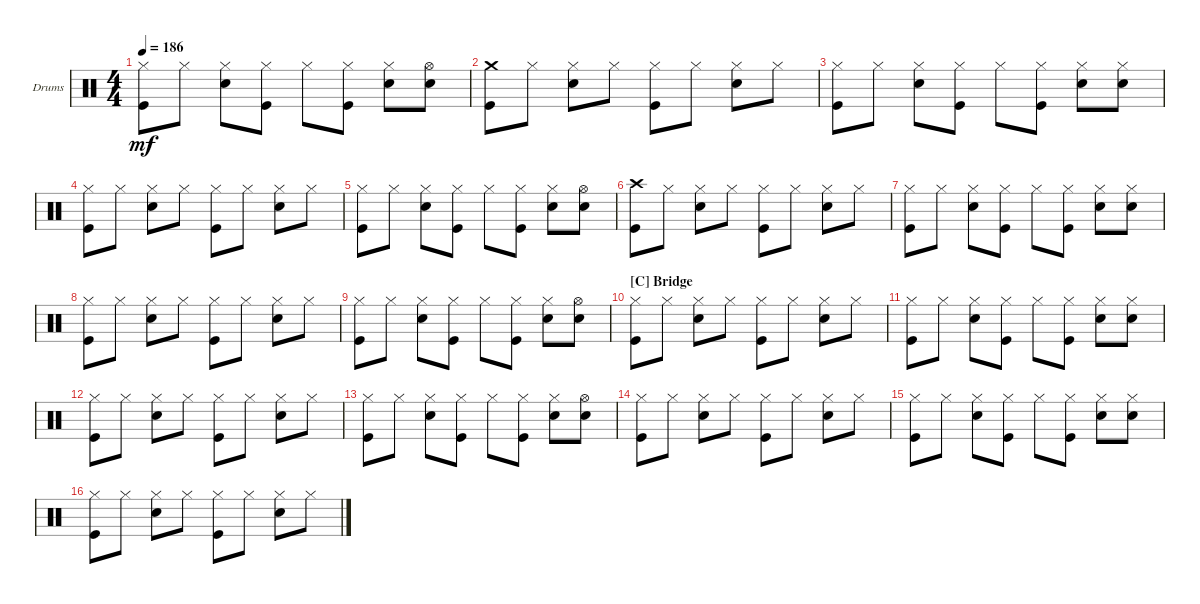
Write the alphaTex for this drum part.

\bracketExtendMode groupsimilarinstruments
\firstSystemTrackNameOrientation horizontal
\otherSystemsTrackNameOrientation horizontal
\track ("Drumkit" "Drums") {instrument percussion}
\staff {score}
\articulation defaults
\ts (4 4)
\tempo 186
\clef neutral
\ks c
("Hi-Hat (closed)" "Kick (hit)").8{dy mf} "Hi-Hat (closed)".8 ("Hi-Hat (closed)" "Snare (hit) 2").8 ("Hi-Hat (closed)" "Kick (hit)").8 "Hi-Hat (closed)".8 ("Hi-Hat (closed)" "Kick (hit)").8 ("Hi-Hat (closed)" "Snare (hit) 2").8 ("Hi-Hat (open)" "Snare (hit) 2").8 |
("Crash medium (hit)" "Kick (hit)").8 "Hi-Hat (closed)".8 ("Hi-Hat (closed)" "Snare (hit) 2").8 "Hi-Hat (closed)".8 ("Hi-Hat (closed)" "Kick (hit)").8 "Hi-Hat (closed)".8 ("Hi-Hat (closed)" "Snare (hit) 2").8 "Hi-Hat (closed)".8 |
("Hi-Hat (closed)" "Kick (hit)").8 "Hi-Hat (closed)".8 ("Hi-Hat (closed)" "Snare (hit) 2").8 ("Hi-Hat (closed)" "Kick (hit)").8 "Hi-Hat (closed)".8 ("Hi-Hat (closed)" "Kick (hit)").8 ("Hi-Hat (closed)" "Snare (hit) 2").8 ("Hi-Hat (closed)" "Snare (hit) 2").8 |
("Hi-Hat (closed)" "Kick (hit)").8 "Hi-Hat (closed)".8 ("Hi-Hat (closed)" "Snare (hit) 2").8 "Hi-Hat (closed)".8 ("Hi-Hat (closed)" "Kick (hit)").8 "Hi-Hat (closed)".8 ("Hi-Hat (closed)" "Snare (hit) 2").8 "Hi-Hat (closed)".8 |
("Hi-Hat (closed)" "Kick (hit)").8 "Hi-Hat (closed)".8 ("Hi-Hat (closed)" "Snare (hit) 2").8 ("Hi-Hat (closed)" "Kick (hit)").8 "Hi-Hat (closed)".8 ("Hi-Hat (closed)" "Kick (hit)").8 ("Hi-Hat (closed)" "Snare (hit) 2").8 ("Hi-Hat (open)" "Snare (hit) 2").8 |
("Crash high (hit)" "Kick (hit)").8 "Hi-Hat (closed)".8 ("Hi-Hat (closed)" "Snare (hit) 2").8 "Hi-Hat (closed)".8 ("Hi-Hat (closed)" "Kick (hit)").8 "Hi-Hat (closed)".8 ("Hi-Hat (closed)" "Snare (hit) 2").8 "Hi-Hat (closed)".8 |
("Hi-Hat (closed)" "Kick (hit)").8 "Hi-Hat (closed)".8 ("Hi-Hat (closed)" "Snare (hit) 2").8 ("Hi-Hat (closed)" "Kick (hit)").8 "Hi-Hat (closed)".8 ("Hi-Hat (closed)" "Kick (hit)").8 ("Hi-Hat (closed)" "Snare (hit) 2").8 ("Hi-Hat (closed)" "Snare (hit) 2").8 |
("Hi-Hat (closed)" "Kick (hit)").8 "Hi-Hat (closed)".8 ("Hi-Hat (closed)" "Snare (hit) 2").8 "Hi-Hat (closed)".8 ("Hi-Hat (closed)" "Kick (hit)").8 "Hi-Hat (closed)".8 ("Hi-Hat (closed)" "Snare (hit) 2").8 "Hi-Hat (closed)".8 |
("Hi-Hat (closed)" "Kick (hit)").8 "Hi-Hat (closed)".8 ("Hi-Hat (closed)" "Snare (hit) 2").8 ("Hi-Hat (closed)" "Kick (hit)").8 "Hi-Hat (closed)".8 ("Hi-Hat (closed)" "Kick (hit)").8 ("Hi-Hat (closed)" "Snare (hit) 2").8 ("Hi-Hat (open)" "Snare (hit) 2").8 |
\section ("C" "Bridge")
("Hi-Hat (closed)" "Kick (hit)").8 "Hi-Hat (closed)".8 ("Hi-Hat (closed)" "Snare (hit) 2").8 "Hi-Hat (closed)".8 ("Hi-Hat (closed)" "Kick (hit)").8 "Hi-Hat (closed)".8 ("Hi-Hat (closed)" "Snare (hit) 2").8 "Hi-Hat (closed)".8 |
("Hi-Hat (closed)" "Kick (hit)").8 "Hi-Hat (closed)".8 ("Hi-Hat (closed)" "Snare (hit) 2").8 ("Hi-Hat (closed)" "Kick (hit)").8 "Hi-Hat (closed)".8 ("Hi-Hat (closed)" "Kick (hit)").8 ("Hi-Hat (closed)" "Snare (hit) 2").8 ("Hi-Hat (closed)" "Snare (hit) 2").8 |
("Hi-Hat (closed)" "Kick (hit)").8 "Hi-Hat (closed)".8 ("Hi-Hat (closed)" "Snare (hit) 2").8 "Hi-Hat (closed)".8 ("Hi-Hat (closed)" "Kick (hit)").8 "Hi-Hat (closed)".8 ("Hi-Hat (closed)" "Snare (hit) 2").8 "Hi-Hat (closed)".8 |
("Hi-Hat (closed)" "Kick (hit)").8 "Hi-Hat (closed)".8 ("Hi-Hat (closed)" "Snare (hit) 2").8 ("Hi-Hat (closed)" "Kick (hit)").8 "Hi-Hat (closed)".8 ("Hi-Hat (closed)" "Kick (hit)").8 ("Hi-Hat (closed)" "Snare (hit) 2").8 ("Hi-Hat (open)" "Snare (hit) 2").8 |
("Hi-Hat (closed)" "Kick (hit)").8 "Hi-Hat (closed)".8 ("Hi-Hat (closed)" "Snare (hit) 2").8 "Hi-Hat (closed)".8 ("Hi-Hat (closed)" "Kick (hit)").8 "Hi-Hat (closed)".8 ("Hi-Hat (closed)" "Snare (hit) 2").8 "Hi-Hat (closed)".8 |
("Hi-Hat (closed)" "Kick (hit)").8 "Hi-Hat (closed)".8 ("Hi-Hat (closed)" "Snare (hit) 2").8 ("Hi-Hat (closed)" "Kick (hit)").8 "Hi-Hat (closed)".8 ("Hi-Hat (closed)" "Kick (hit)").8 ("Hi-Hat (closed)" "Snare (hit) 2").8 ("Hi-Hat (closed)" "Snare (hit) 2").8 |
("Hi-Hat (closed)" "Kick (hit)").8 "Hi-Hat (closed)".8 ("Hi-Hat (closed)" "Snare (hit) 2").8 "Hi-Hat (closed)".8 ("Hi-Hat (closed)" "Kick (hit)").8 "Hi-Hat (closed)".8 ("Hi-Hat (closed)" "Snare (hit) 2").8 "Hi-Hat (closed)".8
